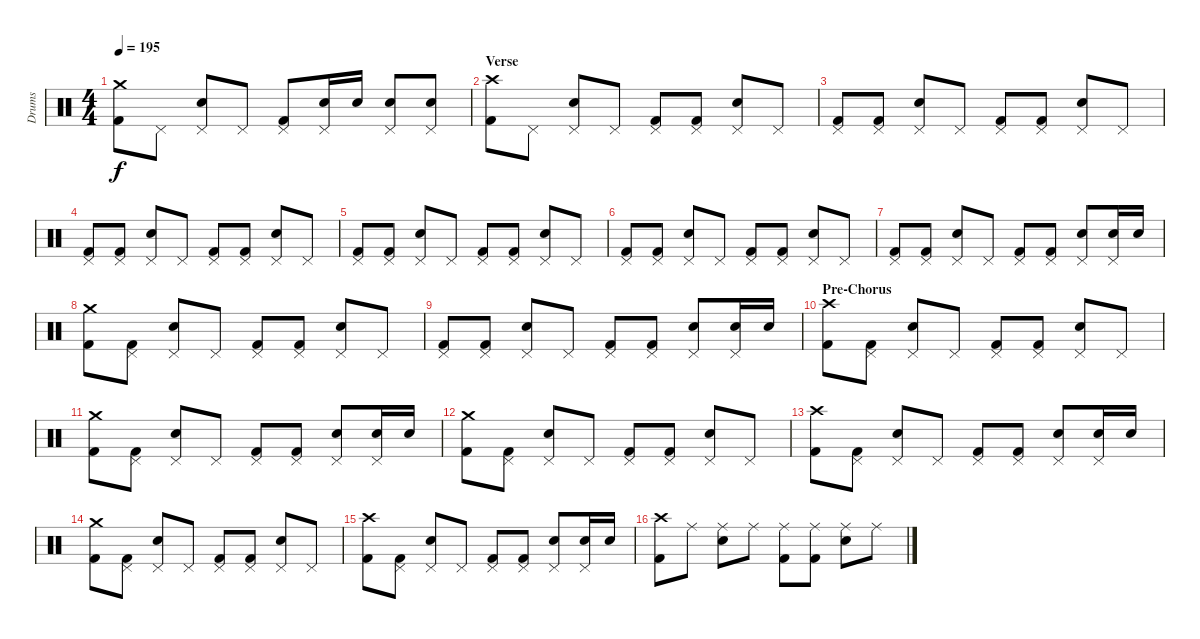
\track ("Drums" "Drums") {instrument percussion}
\staff {score}
\articulation defaults
\ts (4 4)
\tempo 195
\clef neutral
\ks c
("Crash medium (hit)" "Kick (hit) 2").8{dy f} "Pedal Hi-Hat (hit)".8 ("Pedal Hi-Hat (hit)" "Electric Snare (hit)").8 "Pedal Hi-Hat (hit)".8 ("Pedal Hi-Hat (hit)" "Kick (hit) 2").8 ("Pedal Hi-Hat (hit)" "Electric Snare (hit)").16 "Electric Snare (hit)".16 ("Pedal Hi-Hat (hit)" "Electric Snare (hit)").8 ("Pedal Hi-Hat (hit)" "Electric Snare (hit)").8 |
\section ("" "Verse")
("Crash high (hit)" "Kick (hit) 2").8 "Pedal Hi-Hat (hit)".8 ("Pedal Hi-Hat (hit)" "Electric Snare (hit)").8 "Pedal Hi-Hat (hit)".8 ("Pedal Hi-Hat (hit)" "Kick (hit) 2").8 ("Pedal Hi-Hat (hit)" "Kick (hit) 2").8 ("Pedal Hi-Hat (hit)" "Electric Snare (hit)").8 "Pedal Hi-Hat (hit)".8 |
("Pedal Hi-Hat (hit)" "Kick (hit) 2").8 ("Pedal Hi-Hat (hit)" "Kick (hit) 2").8 ("Pedal Hi-Hat (hit)" "Electric Snare (hit)").8 "Pedal Hi-Hat (hit)".8 ("Pedal Hi-Hat (hit)" "Kick (hit) 2").8 ("Pedal Hi-Hat (hit)" "Kick (hit) 2").8 ("Pedal Hi-Hat (hit)" "Electric Snare (hit)").8 "Pedal Hi-Hat (hit)".8 |
("Pedal Hi-Hat (hit)" "Kick (hit) 2").8 ("Pedal Hi-Hat (hit)" "Kick (hit) 2").8 ("Pedal Hi-Hat (hit)" "Electric Snare (hit)").8 "Pedal Hi-Hat (hit)".8 ("Pedal Hi-Hat (hit)" "Kick (hit) 2").8 ("Pedal Hi-Hat (hit)" "Kick (hit) 2").8 ("Pedal Hi-Hat (hit)" "Electric Snare (hit)").8 "Pedal Hi-Hat (hit)".8 |
("Pedal Hi-Hat (hit)" "Kick (hit) 2").8 ("Pedal Hi-Hat (hit)" "Kick (hit) 2").8 ("Pedal Hi-Hat (hit)" "Electric Snare (hit)").8 "Pedal Hi-Hat (hit)".8 ("Pedal Hi-Hat (hit)" "Kick (hit) 2").8 ("Pedal Hi-Hat (hit)" "Kick (hit) 2").8 ("Pedal Hi-Hat (hit)" "Electric Snare (hit)").8 "Pedal Hi-Hat (hit)".8 |
("Pedal Hi-Hat (hit)" "Kick (hit) 2").8 ("Pedal Hi-Hat (hit)" "Kick (hit) 2").8 ("Pedal Hi-Hat (hit)" "Electric Snare (hit)").8 "Pedal Hi-Hat (hit)".8 ("Pedal Hi-Hat (hit)" "Kick (hit) 2").8 ("Pedal Hi-Hat (hit)" "Kick (hit) 2").8 ("Pedal Hi-Hat (hit)" "Electric Snare (hit)").8 "Pedal Hi-Hat (hit)".8 |
("Pedal Hi-Hat (hit)" "Kick (hit) 2").8 ("Pedal Hi-Hat (hit)" "Kick (hit) 2").8 ("Pedal Hi-Hat (hit)" "Electric Snare (hit)").8 "Pedal Hi-Hat (hit)".8 ("Pedal Hi-Hat (hit)" "Kick (hit) 2").8 ("Pedal Hi-Hat (hit)" "Kick (hit) 2").8 ("Pedal Hi-Hat (hit)" "Electric Snare (hit)").8 ("Pedal Hi-Hat (hit)" "Electric Snare (hit)").16 "Electric Snare (hit)".16 |
("Crash medium (hit)" "Kick (hit) 2").8 ("Pedal Hi-Hat (hit)" "Kick (hit) 2").8 ("Pedal Hi-Hat (hit)" "Electric Snare (hit)").8 "Pedal Hi-Hat (hit)".8 ("Pedal Hi-Hat (hit)" "Kick (hit) 2").8 ("Pedal Hi-Hat (hit)" "Kick (hit) 2").8 ("Pedal Hi-Hat (hit)" "Electric Snare (hit)").8 "Pedal Hi-Hat (hit)".8 |
("Pedal Hi-Hat (hit)" "Kick (hit) 2").8 ("Pedal Hi-Hat (hit)" "Kick (hit) 2").8 ("Pedal Hi-Hat (hit)" "Electric Snare (hit)").8 "Pedal Hi-Hat (hit)".8 ("Pedal Hi-Hat (hit)" "Kick (hit) 2").8 ("Pedal Hi-Hat (hit)" "Kick (hit) 2").8 ("Pedal Hi-Hat (hit)" "Electric Snare (hit)").8 ("Pedal Hi-Hat (hit)" "Electric Snare (hit)").16 "Electric Snare (hit)".16 |
\section ("" "Pre-Chorus")
("Crash high (hit)" "Kick (hit) 2").8 ("Pedal Hi-Hat (hit)" "Kick (hit) 2").8 ("Pedal Hi-Hat (hit)" "Electric Snare (hit)").8 "Pedal Hi-Hat (hit)".8 ("Pedal Hi-Hat (hit)" "Kick (hit) 2").8 ("Pedal Hi-Hat (hit)" "Kick (hit) 2").8 ("Pedal Hi-Hat (hit)" "Electric Snare (hit)").8 "Pedal Hi-Hat (hit)".8 |
("Crash medium (hit)" "Kick (hit) 2").8 ("Pedal Hi-Hat (hit)" "Kick (hit) 2").8 ("Pedal Hi-Hat (hit)" "Electric Snare (hit)").8 "Pedal Hi-Hat (hit)".8 ("Pedal Hi-Hat (hit)" "Kick (hit) 2").8 ("Pedal Hi-Hat (hit)" "Kick (hit) 2").8 ("Pedal Hi-Hat (hit)" "Electric Snare (hit)").8 ("Pedal Hi-Hat (hit)" "Electric Snare (hit)").16 "Electric Snare (hit)".16 |
("Crash medium (hit)" "Kick (hit) 2").8 ("Pedal Hi-Hat (hit)" "Kick (hit) 2").8 ("Pedal Hi-Hat (hit)" "Electric Snare (hit)").8 "Pedal Hi-Hat (hit)".8 ("Pedal Hi-Hat (hit)" "Kick (hit) 2").8 ("Pedal Hi-Hat (hit)" "Kick (hit) 2").8 ("Pedal Hi-Hat (hit)" "Electric Snare (hit)").8 "Pedal Hi-Hat (hit)".8 |
("Crash high (hit)" "Kick (hit) 2").8 ("Pedal Hi-Hat (hit)" "Kick (hit) 2").8 ("Pedal Hi-Hat (hit)" "Electric Snare (hit)").8 "Pedal Hi-Hat (hit)".8 ("Pedal Hi-Hat (hit)" "Kick (hit) 2").8 ("Pedal Hi-Hat (hit)" "Kick (hit) 2").8 ("Pedal Hi-Hat (hit)" "Electric Snare (hit)").8 ("Pedal Hi-Hat (hit)" "Electric Snare (hit)").16 "Electric Snare (hit)".16 |
("Crash medium (hit)" "Kick (hit) 2").8 ("Pedal Hi-Hat (hit)" "Kick (hit) 2").8 ("Pedal Hi-Hat (hit)" "Electric Snare (hit)").8 "Pedal Hi-Hat (hit)".8 ("Pedal Hi-Hat (hit)" "Kick (hit) 2").8 ("Pedal Hi-Hat (hit)" "Kick (hit) 2").8 ("Pedal Hi-Hat (hit)" "Electric Snare (hit)").8 "Pedal Hi-Hat (hit)".8 |
("Crash high (hit)" "Kick (hit) 2").8 ("Pedal Hi-Hat (hit)" "Kick (hit) 2").8 ("Pedal Hi-Hat (hit)" "Electric Snare (hit)").8 "Pedal Hi-Hat (hit)".8 ("Pedal Hi-Hat (hit)" "Kick (hit) 2").8 ("Pedal Hi-Hat (hit)" "Kick (hit) 2").8 ("Pedal Hi-Hat (hit)" "Electric Snare (hit)").8 ("Pedal Hi-Hat (hit)" "Electric Snare (hit)").16 "Electric Snare (hit)".16 |
("Crash high (hit)" "Kick (hit) 2").8 "Ride (middle)".8 ("Ride (middle)" "Electric Snare (hit)").8 "Ride (middle)".8 ("Ride (middle)" "Kick (hit) 2").8 ("Ride (middle)" "Kick (hit) 2").8 ("Ride (middle)" "Electric Snare (hit)").8 "Ride (middle)".8
